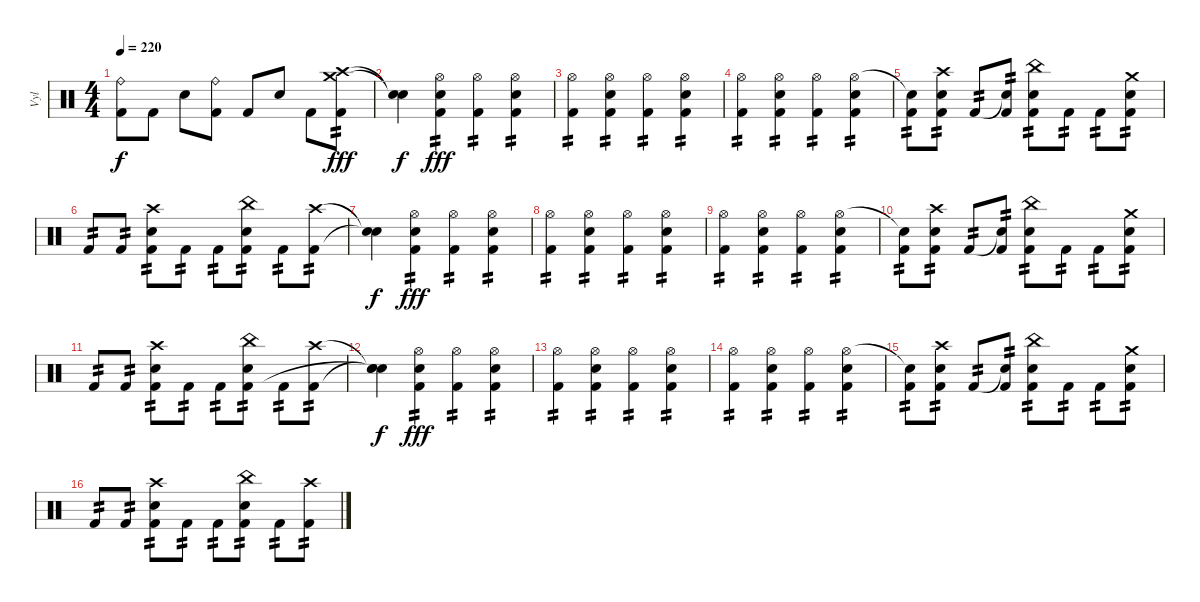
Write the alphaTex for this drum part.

\track ("Vyl" "Vyl") {instrument percussion}
\staff {score}
\articulation defaults
\ts (4 4)
\tempo 220
\clef neutral
\ks c
("Ride (bell)" "Kick (hit) 2").8{dy f} "Kick (hit) 2".8 "Snare (hit) 2".8 ("Ride (bell)" "Kick (hit) 2").8 "Kick (hit) 2".8 "Snare (hit) 2".8 "Kick (hit) 2".8 ("Crash high (hit)" "Crash medium (hit)" "Kick (hit) 2").8{tp 2 dy fff} |
("Snare (hit)"{t} "Snare (hit)"{t}).4{dy f} ("Hi-Hat (open)" "Snare (hit) 2" "Kick (hit) 2").4{tp 2 dy fff} ("Hi-Hat (open)" "Kick (hit) 2").4{tp 2} ("Hi-Hat (open)" "Snare (hit) 2" "Kick (hit) 2").4{tp 2} |
("Hi-Hat (open)" "Kick (hit) 2").4{tp 2} ("Hi-Hat (open)" "Snare (hit) 2" "Kick (hit) 2").4{tp 2} ("Hi-Hat (open)" "Kick (hit) 2").4{tp 2} ("Hi-Hat (open)" "Snare (hit) 2" "Kick (hit) 2").4{tp 2} |
("Hi-Hat (open)" "Kick (hit) 2").4{tp 2} ("Hi-Hat (open)" "Snare (hit) 2" "Kick (hit) 2").4{tp 2} ("Hi-Hat (open)" "Kick (hit) 2").4{tp 2} ("Hi-Hat (open)" "Snare (hit) 2" "Kick (hit) 2").4{tp 2} |
("Snare (hit)"{t} "Kick (hit) 2").8{tp 2} ("Crash high (hit)" "Snare (hit) 2" "Kick (hit) 2").8{tp 2} "Kick (hit) 2".8{tp 2} ("Snare (hit)"{t} "Kick (hit) 2").8{tp 2} ("China (hit)" "Snare (hit) 2" "Kick (hit) 2").8{tp 2} "Kick (hit) 2".8{tp 2} "Kick (hit) 2".8{tp 2} ("Crash medium (hit)" "Snare (hit) 2" "Kick (hit) 2").8{tp 2} |
"Kick (hit) 2".8{tp 2} "Kick (hit) 2".8{tp 2} ("Crash high (hit)" "Snare (hit) 2" "Kick (hit) 2").8{tp 2} "Kick (hit) 2".8{tp 2} "Kick (hit) 2".8{tp 2} ("China (hit)" "Snare (hit) 2" "Kick (hit) 2").8{tp 2} "Kick (hit) 2".8{tp 2} ("Crash high (hit)" "Kick (hit) 2").8{tp 2} |
("Snare (hit)"{t} "Snare (hit)"{t}).4{dy f} ("Hi-Hat (open)" "Snare (hit) 2" "Kick (hit) 2").4{tp 2 dy fff} ("Hi-Hat (open)" "Kick (hit) 2").4{tp 2} ("Hi-Hat (open)" "Snare (hit) 2" "Kick (hit) 2").4{tp 2} |
("Hi-Hat (open)" "Kick (hit) 2").4{tp 2} ("Hi-Hat (open)" "Snare (hit) 2" "Kick (hit) 2").4{tp 2} ("Hi-Hat (open)" "Kick (hit) 2").4{tp 2} ("Hi-Hat (open)" "Snare (hit) 2" "Kick (hit) 2").4{tp 2} |
("Hi-Hat (open)" "Kick (hit) 2").4{tp 2} ("Hi-Hat (open)" "Snare (hit) 2" "Kick (hit) 2").4{tp 2} ("Hi-Hat (open)" "Kick (hit) 2").4{tp 2} ("Hi-Hat (open)" "Snare (hit) 2" "Kick (hit) 2").4{tp 2} |
("Snare (hit)"{t} "Kick (hit) 2").8{tp 2} ("Crash high (hit)" "Snare (hit) 2" "Kick (hit) 2").8{tp 2} "Kick (hit) 2".8{tp 2} ("Snare (hit)"{t} "Kick (hit) 2").8{tp 2} ("China (hit)" "Snare (hit) 2" "Kick (hit) 2").8{tp 2} "Kick (hit) 2".8{tp 2} "Kick (hit) 2".8{tp 2} ("Crash medium (hit)" "Snare (hit) 2" "Kick (hit) 2").8{tp 2} |
"Kick (hit) 2".8{tp 2} "Kick (hit) 2".8{tp 2} ("Crash high (hit)" "Snare (hit) 2" "Kick (hit) 2").8{tp 2} "Kick (hit) 2".8{tp 2} "Kick (hit) 2".8{tp 2} ("China (hit)" "Snare (hit) 2" "Kick (hit) 2").8{tp 2} "Kick (hit) 2".8{tp 2} ("Crash high (hit)" "Kick (hit) 2").8{tp 2} |
("Snare (hit)"{t} "Snare (hit)"{t} "Snare (hit)"{t}).4{dy f} ("Hi-Hat (open)" "Snare (hit) 2" "Kick (hit) 2").4{tp 2 dy fff} ("Hi-Hat (open)" "Kick (hit) 2").4{tp 2} ("Hi-Hat (open)" "Snare (hit) 2" "Kick (hit) 2").4{tp 2} |
("Hi-Hat (open)" "Kick (hit) 2").4{tp 2} ("Hi-Hat (open)" "Snare (hit) 2" "Kick (hit) 2").4{tp 2} ("Hi-Hat (open)" "Kick (hit) 2").4{tp 2} ("Hi-Hat (open)" "Snare (hit) 2" "Kick (hit) 2").4{tp 2} |
("Hi-Hat (open)" "Kick (hit) 2").4{tp 2} ("Hi-Hat (open)" "Snare (hit) 2" "Kick (hit) 2").4{tp 2} ("Hi-Hat (open)" "Kick (hit) 2").4{tp 2} ("Hi-Hat (open)" "Snare (hit) 2" "Kick (hit) 2").4{tp 2} |
("Snare (hit)"{t} "Kick (hit) 2").8{tp 2} ("Crash high (hit)" "Snare (hit) 2" "Kick (hit) 2").8{tp 2} "Kick (hit) 2".8{tp 2} ("Snare (hit)"{t} "Kick (hit) 2").8{tp 2} ("China (hit)" "Snare (hit) 2" "Kick (hit) 2").8{tp 2} "Kick (hit) 2".8{tp 2} "Kick (hit) 2".8{tp 2} ("Crash medium (hit)" "Snare (hit) 2" "Kick (hit) 2").8{tp 2} |
"Kick (hit) 2".8{tp 2} "Kick (hit) 2".8{tp 2} ("Crash high (hit)" "Snare (hit) 2" "Kick (hit) 2").8{tp 2} "Kick (hit) 2".8{tp 2} "Kick (hit) 2".8{tp 2} ("China (hit)" "Snare (hit) 2" "Kick (hit) 2").8{tp 2} "Kick (hit) 2".8{tp 2} ("Crash high (hit)" "Kick (hit) 2").8{tp 2}
